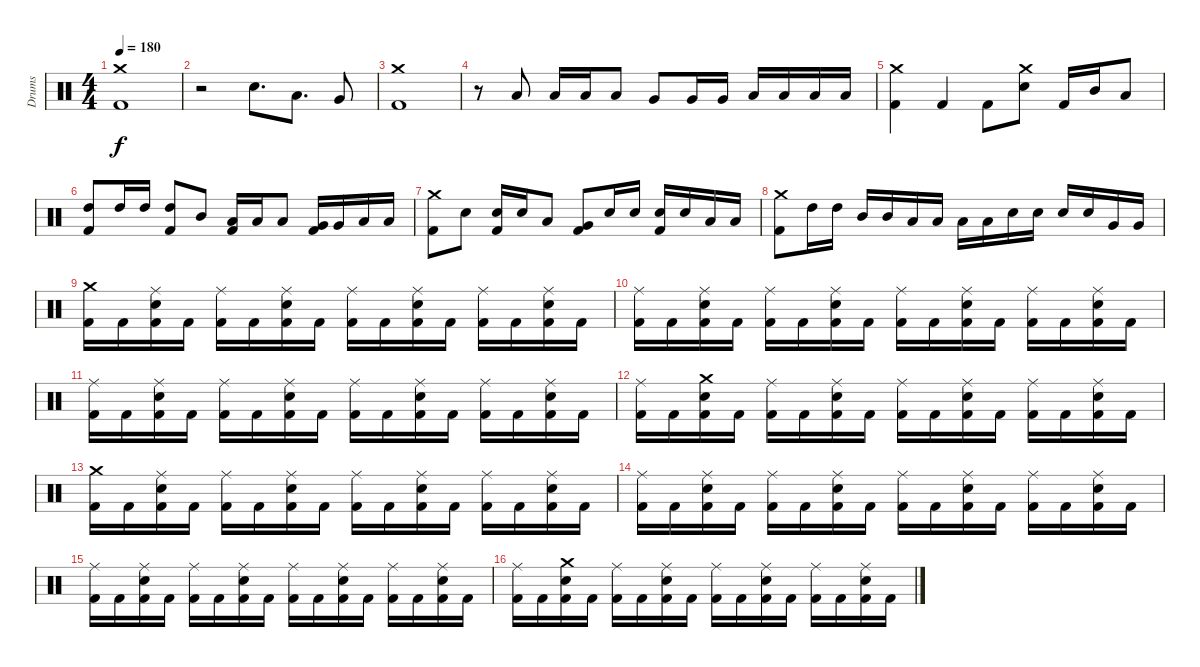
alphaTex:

\track ("Drums" "Drums") {instrument percussion}
\staff {score}
\articulation defaults
\ts (4 4)
\tempo 180
\clef neutral
\ks c
("Crash medium (hit)" "Kick (hit) 2").1{dy f} |
r.2 "Snare (hit) 2".8{d} "Low Tom (hit)".8{d} "Very Low Tom (hit)".8 |
("Crash medium (hit)" "Kick (hit) 2").1 |
r.8 "Low Tom (hit)".8 "Low Tom (hit)".16 "Low Tom (hit)".16 "Low Tom (hit)".8 "Very Low Tom (hit)".8 "Very Low Tom (hit)".16 "Very Low Tom (hit)".16 "Low Floor Tom (hit)".16 "Low Floor Tom (hit)".16 "Low Floor Tom (hit)".16 "Low Floor Tom (hit)".16 |
("Crash medium (hit)" "Kick (hit) 2").4 "Kick (hit) 2".4 "Kick (hit) 2".8 ("Crash medium (hit)" "Snare (hit) 2").8 "Kick (hit) 2".16 "Mid Tom (hit)".16 "Low Tom (hit)".8 |
("High Tom (hit)" "Kick (hit) 2").8 "High Tom (hit)".16 "High Tom (hit)".16 ("High Tom (hit)" "Kick (hit) 2").8 "Mid Tom (hit)".8 ("Low Tom (hit)" "Kick (hit) 2").16 "Low Tom (hit)".16 "Low Tom (hit)".8 ("Very Low Tom (hit)" "Kick (hit) 2").16 "Very Low Tom (hit)".16 "Low Floor Tom (hit)".16 "Low Floor Tom (hit)".16 |
("Crash medium (hit)" "Kick (hit) 2").8 "Snare (hit) 2".8 ("Snare (hit) 2" "Kick (hit) 2").16 "Snare (hit) 2".16 "Low Tom (hit)".8 ("Very Low Tom (hit)" "Kick (hit) 2").8 "Snare (hit) 2".16 "Snare (hit) 2".16 ("Snare (hit) 2" "Kick (hit) 2").16 "Snare (hit) 2".16 "Low Tom (hit)".16 "Low Tom (hit)".16 |
("Crash medium (hit)" "Kick (hit) 2").8 "High Tom (hit)".16 "High Tom (hit)".16 "Mid Tom (hit)".16 "Mid Tom (hit)".16 "Low Tom (hit)".16 "Low Tom (hit)".16 "Low Tom (hit)".16 "Low Tom (hit)".16 "Snare (hit) 2".16 "Snare (hit) 2".16 "Snare (hit) 2".16 "Snare (hit) 2".16 "Very Low Tom (hit)".16 "Very Low Tom (hit)".16 |
("Crash medium (hit)" "Kick (hit) 2").16 "Kick (hit) 2".16 ("Ride (middle)" "Snare (hit) 2" "Kick (hit) 2").16 "Kick (hit) 2".16 ("Ride (middle)" "Kick (hit) 2").16 "Kick (hit) 2".16 ("Ride (middle)" "Snare (hit) 2" "Kick (hit) 2").16 "Kick (hit) 2".16 ("Ride (middle)" "Kick (hit) 2").16 "Kick (hit) 2".16 ("Ride (middle)" "Snare (hit) 2" "Kick (hit) 2").16 "Kick (hit) 2".16 ("Ride (middle)" "Kick (hit) 2").16 "Kick (hit) 2".16 ("Ride (middle)" "Snare (hit) 2" "Kick (hit) 2").16 "Kick (hit) 2".16 |
("Ride (middle)" "Kick (hit) 2").16 "Kick (hit) 2".16 ("Ride (middle)" "Snare (hit) 2" "Kick (hit) 2").16 "Kick (hit) 2".16 ("Ride (middle)" "Kick (hit) 2").16 "Kick (hit) 2".16 ("Ride (middle)" "Snare (hit) 2" "Kick (hit) 2").16 "Kick (hit) 2".16 ("Ride (middle)" "Kick (hit) 2").16 "Kick (hit) 2".16 ("Ride (middle)" "Snare (hit) 2" "Kick (hit) 2").16 "Kick (hit) 2".16 ("Ride (middle)" "Kick (hit) 2").16 "Kick (hit) 2".16 ("Ride (middle)" "Snare (hit) 2" "Kick (hit) 2").16 "Kick (hit) 2".16 |
("Ride (middle)" "Kick (hit) 2").16 "Kick (hit) 2".16 ("Ride (middle)" "Snare (hit) 2" "Kick (hit) 2").16 "Kick (hit) 2".16 ("Ride (middle)" "Kick (hit) 2").16 "Kick (hit) 2".16 ("Ride (middle)" "Snare (hit) 2" "Kick (hit) 2").16 "Kick (hit) 2".16 ("Ride (middle)" "Kick (hit) 2").16 "Kick (hit) 2".16 ("Ride (middle)" "Snare (hit) 2" "Kick (hit) 2").16 "Kick (hit) 2".16 ("Ride (middle)" "Kick (hit) 2").16 "Kick (hit) 2".16 ("Ride (middle)" "Snare (hit) 2" "Kick (hit) 2").16 "Kick (hit) 2".16 |
("Ride (middle)" "Kick (hit) 2").16 "Kick (hit) 2".16 ("Crash medium (hit)" "Snare (hit) 2" "Kick (hit) 2").16 "Kick (hit) 2".16 ("Ride (middle)" "Kick (hit) 2").16 "Kick (hit) 2".16 ("Ride (middle)" "Snare (hit) 2" "Kick (hit) 2").16 "Kick (hit) 2".16 ("Ride (middle)" "Kick (hit) 2").16 "Kick (hit) 2".16 ("Ride (middle)" "Snare (hit) 2" "Kick (hit) 2").16 "Kick (hit) 2".16 ("Ride (middle)" "Kick (hit) 2").16 "Kick (hit) 2".16 ("Ride (middle)" "Snare (hit) 2" "Kick (hit) 2").16 "Kick (hit) 2".16 |
("Crash medium (hit)" "Kick (hit) 2").16 "Kick (hit) 2".16 ("Ride (middle)" "Snare (hit) 2" "Kick (hit) 2").16 "Kick (hit) 2".16 ("Ride (middle)" "Kick (hit) 2").16 "Kick (hit) 2".16 ("Ride (middle)" "Snare (hit) 2" "Kick (hit) 2").16 "Kick (hit) 2".16 ("Ride (middle)" "Kick (hit) 2").16 "Kick (hit) 2".16 ("Ride (middle)" "Snare (hit) 2" "Kick (hit) 2").16 "Kick (hit) 2".16 ("Ride (middle)" "Kick (hit) 2").16 "Kick (hit) 2".16 ("Ride (middle)" "Snare (hit) 2" "Kick (hit) 2").16 "Kick (hit) 2".16 |
("Ride (middle)" "Kick (hit) 2").16 "Kick (hit) 2".16 ("Ride (middle)" "Snare (hit) 2" "Kick (hit) 2").16 "Kick (hit) 2".16 ("Ride (middle)" "Kick (hit) 2").16 "Kick (hit) 2".16 ("Ride (middle)" "Snare (hit) 2" "Kick (hit) 2").16 "Kick (hit) 2".16 ("Ride (middle)" "Kick (hit) 2").16 "Kick (hit) 2".16 ("Ride (middle)" "Snare (hit) 2" "Kick (hit) 2").16 "Kick (hit) 2".16 ("Ride (middle)" "Kick (hit) 2").16 "Kick (hit) 2".16 ("Ride (middle)" "Snare (hit) 2" "Kick (hit) 2").16 "Kick (hit) 2".16 |
("Ride (middle)" "Kick (hit) 2").16 "Kick (hit) 2".16 ("Ride (middle)" "Snare (hit) 2" "Kick (hit) 2").16 "Kick (hit) 2".16 ("Ride (middle)" "Kick (hit) 2").16 "Kick (hit) 2".16 ("Ride (middle)" "Snare (hit) 2" "Kick (hit) 2").16 "Kick (hit) 2".16 ("Ride (middle)" "Kick (hit) 2").16 "Kick (hit) 2".16 ("Ride (middle)" "Snare (hit) 2" "Kick (hit) 2").16 "Kick (hit) 2".16 ("Ride (middle)" "Kick (hit) 2").16 "Kick (hit) 2".16 ("Ride (middle)" "Snare (hit) 2" "Kick (hit) 2").16 "Kick (hit) 2".16 |
("Ride (middle)" "Kick (hit) 2").16 "Kick (hit) 2".16 ("Crash medium (hit)" "Snare (hit) 2" "Kick (hit) 2").16 "Kick (hit) 2".16 ("Ride (middle)" "Kick (hit) 2").16 "Kick (hit) 2".16 ("Ride (middle)" "Snare (hit) 2" "Kick (hit) 2").16 "Kick (hit) 2".16 ("Ride (middle)" "Kick (hit) 2").16 "Kick (hit) 2".16 ("Ride (middle)" "Snare (hit) 2" "Kick (hit) 2").16 "Kick (hit) 2".16 ("Ride (middle)" "Kick (hit) 2").16 "Kick (hit) 2".16 ("Ride (middle)" "Snare (hit) 2" "Kick (hit) 2").16 "Kick (hit) 2".16
